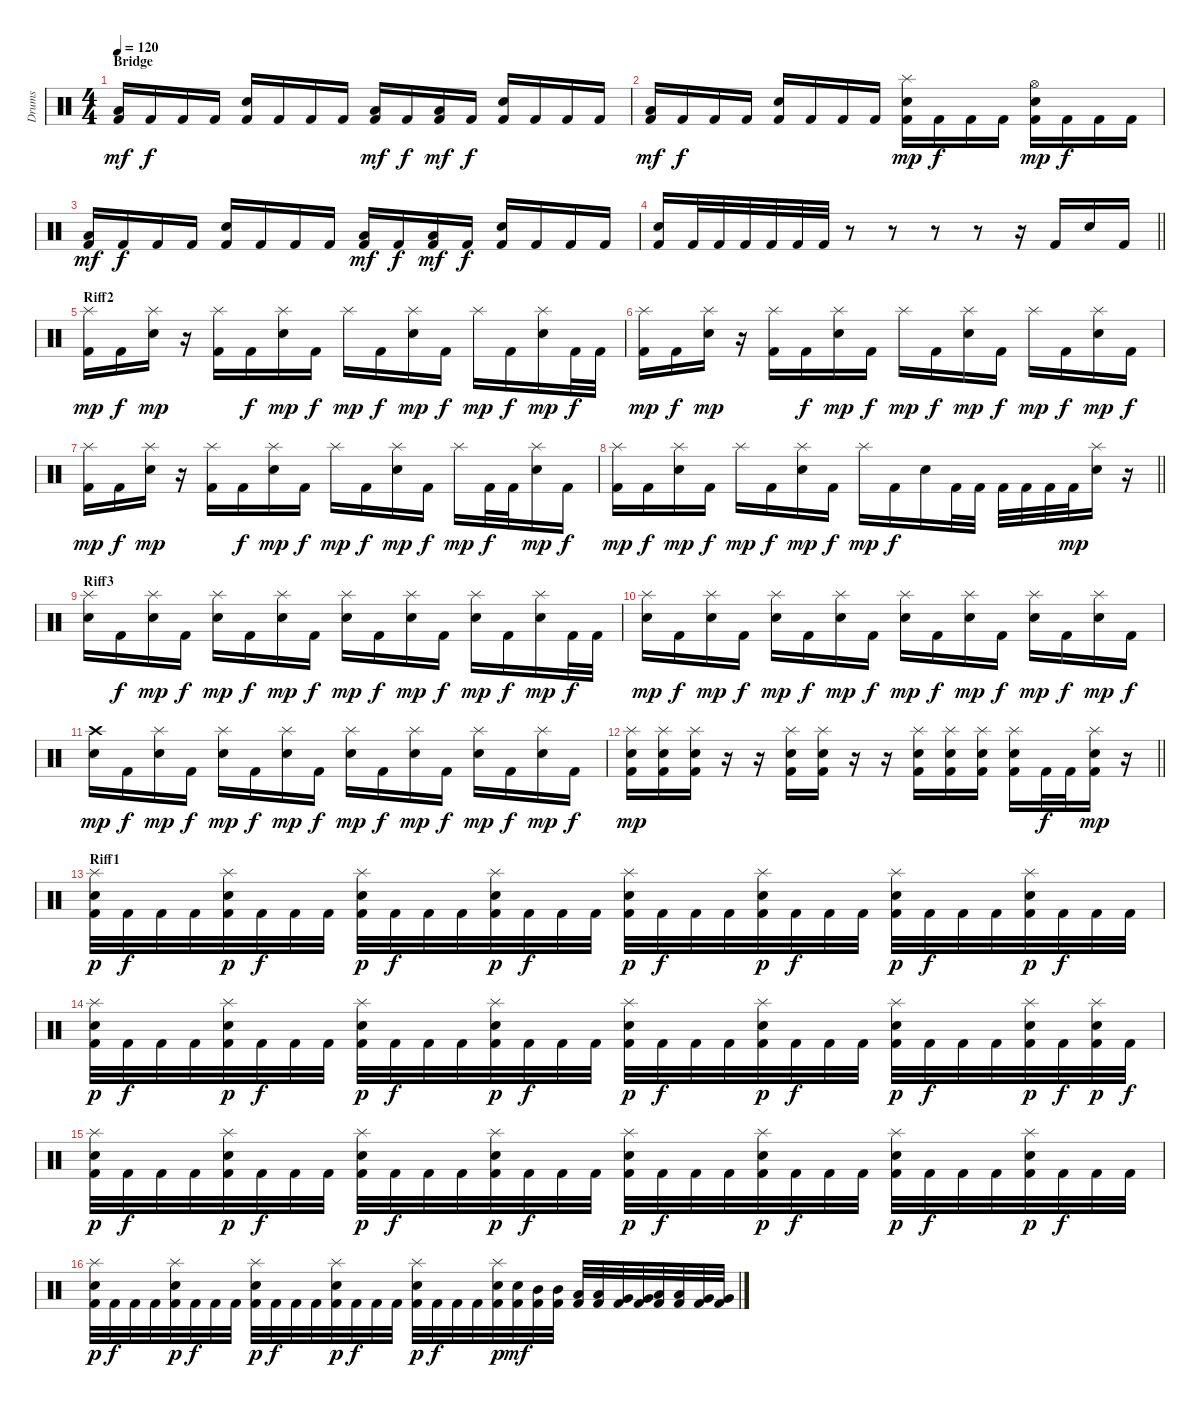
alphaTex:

\track ("Drums" "Drums") {instrument percussion}
\staff {score}
\articulation defaults
\ts (4 4)
\section ("" "Bridge")
\tempo 120
\clef neutral
\ks c
("Kick (hit) 2" "Low Tom (hit)").16{dy mf} "Kick (hit) 2".16{dy f} "Kick (hit) 2".16 "Kick (hit) 2".16 ("Kick (hit) 2" "Snare (hit) 2").16 "Kick (hit) 2".16 "Kick (hit) 2".16 "Kick (hit) 2".16 ("Kick (hit) 2" "Low Tom (hit)").16{dy mf} "Kick (hit) 2".16{dy f} ("Kick (hit) 2" "Low Tom (hit)").16{dy mf} "Kick (hit) 2".16{dy f} ("Kick (hit) 2" "Snare (hit) 2").16 "Kick (hit) 2".16 "Kick (hit) 2".16 "Kick (hit) 2".16 |
("Kick (hit) 2" "Low Tom (hit)").16{dy mf} "Kick (hit) 2".16{dy f} "Kick (hit) 2".16 "Kick (hit) 2".16 ("Kick (hit) 2" "Snare (hit) 2").16 "Kick (hit) 2".16 "Kick (hit) 2".16 "Kick (hit) 2".16 ("Kick (hit) 2" "Splash (hit)" "Snare (hit) 2").16{dy mp} "Kick (hit) 2".16{dy f} "Kick (hit) 2".16 "Kick (hit) 2".16 ("Kick (hit) 2" "Hi-Hat (open)" "Snare (hit) 2").16{dy mp} "Kick (hit) 2".16{dy f} "Kick (hit) 2".16 "Kick (hit) 2".16 |
("Kick (hit) 2" "Low Tom (hit)").16{dy mf} "Kick (hit) 2".16{dy f} "Kick (hit) 2".16 "Kick (hit) 2".16 ("Kick (hit) 2" "Snare (hit) 2").16 "Kick (hit) 2".16 "Kick (hit) 2".16 "Kick (hit) 2".16 ("Kick (hit) 2" "Low Tom (hit)").16{dy mf} "Kick (hit) 2".16{dy f} ("Kick (hit) 2" "Low Tom (hit)").16{dy mf} "Kick (hit) 2".16{dy f} ("Kick (hit) 2" "Snare (hit) 2").16 "Kick (hit) 2".16 "Kick (hit) 2".16 "Kick (hit) 2".16 |
\barLineRight lightlight
("Kick (hit) 2" "Snare (hit) 2").16 "Kick (hit) 2".32 "Kick (hit) 2".32 "Kick (hit) 2".32 "Kick (hit) 2".32 "Kick (hit) 2".32 "Kick (hit) 2".32 r.8 r.8 r.8 r.8 r.16 "Kick (hit) 2".16 "Snare (hit) 2".16 "Kick (hit) 2".16 |
\section ("" "Riff2")
("Kick (hit) 2" "Splash (hit)").16{dy mp} "Kick (hit) 2".16{dy f} ("Splash (hit)" "Snare (hit) 2").16{dy mp} r.16 ("Kick (hit) 2" "Splash (hit)").16 "Kick (hit) 2".16{dy f} ("Splash (hit)" "Snare (hit) 2").16{dy mp} "Kick (hit) 2".16{dy f} "Splash (hit)".16{dy mp} "Kick (hit) 2".16{dy f} ("Splash (hit)" "Snare (hit) 2").16{dy mp} "Kick (hit) 2".16{dy f} "Splash (hit)".16{dy mp} "Kick (hit) 2".16{dy f} ("Splash (hit)" "Snare (hit) 2").16{dy mp} "Kick (hit) 2".32{dy f} "Kick (hit) 2".32 |
("Kick (hit) 2" "Splash (hit)").16{dy mp} "Kick (hit) 2".16{dy f} ("Splash (hit)" "Snare (hit) 2").16{dy mp} r.16 ("Kick (hit) 2" "Splash (hit)").16 "Kick (hit) 2".16{dy f} ("Splash (hit)" "Snare (hit) 2").16{dy mp} "Kick (hit) 2".16{dy f} "Splash (hit)".16{dy mp} "Kick (hit) 2".16{dy f} ("Splash (hit)" "Snare (hit) 2").16{dy mp} "Kick (hit) 2".16{dy f} "Splash (hit)".16{dy mp} "Kick (hit) 2".16{dy f} ("Splash (hit)" "Snare (hit) 2").16{dy mp} "Kick (hit) 2".16{dy f} |
("Kick (hit) 2" "Splash (hit)").16{dy mp} "Kick (hit) 2".16{dy f} ("Splash (hit)" "Snare (hit) 2").16{dy mp} r.16 ("Kick (hit) 2" "Splash (hit)").16 "Kick (hit) 2".16{dy f} ("Splash (hit)" "Snare (hit) 2").16{dy mp} "Kick (hit) 2".16{dy f} "Splash (hit)".16{dy mp} "Kick (hit) 2".16{dy f} ("Splash (hit)" "Snare (hit) 2").16{dy mp} "Kick (hit) 2".16{dy f} "Splash (hit)".16{dy mp} "Kick (hit) 2".32{dy f} "Kick (hit) 2".32 ("Splash (hit)" "Snare (hit) 2").16{dy mp} "Kick (hit) 2".16{dy f} |
\barLineRight lightlight
("Kick (hit) 2" "Splash (hit)").16{dy mp} "Kick (hit) 2".16{dy f} ("Splash (hit)" "Snare (hit) 2").16{dy mp} "Kick (hit) 2".16{dy f} "Splash (hit)".16{dy mp} "Kick (hit) 2".16{dy f} ("Splash (hit)" "Snare (hit) 2").16{dy mp} "Kick (hit) 2".16{dy f} "Splash (hit)".16{dy mp} "Kick (hit) 2".16{dy f} "Snare (hit) 2".16 "Kick (hit) 2".32 "Kick (hit) 2".32 "Kick (hit) 2".32 "Kick (hit) 2".32 "Kick (hit) 2".32 "Kick (hit) 2".32{dy mp} ("Splash (hit)" "Snare (hit) 2").16 r.16 |
\section ("" "Riff3")
("Splash (hit)" "Snare (hit) 2").16 "Kick (hit) 2".16{dy f} ("Splash (hit)" "Snare (hit) 2").16{dy mp} "Kick (hit) 2".16{dy f} ("Splash (hit)" "Snare (hit) 2").16{dy mp} "Kick (hit) 2".16{dy f} ("Splash (hit)" "Snare (hit) 2").16{dy mp} "Kick (hit) 2".16{dy f} ("Splash (hit)" "Snare (hit) 2").16{dy mp} "Kick (hit) 2".16{dy f} ("Splash (hit)" "Snare (hit) 2").16{dy mp} "Kick (hit) 2".16{dy f} ("Splash (hit)" "Snare (hit) 2").16{dy mp} "Kick (hit) 2".16{dy f} ("Splash (hit)" "Snare (hit) 2").16{dy mp} "Kick (hit) 2".32{dy f} "Kick (hit) 2".32 |
("Splash (hit)" "Snare (hit) 2").16{dy mp} "Kick (hit) 2".16{dy f} ("Splash (hit)" "Snare (hit) 2").16{dy mp} "Kick (hit) 2".16{dy f} ("Splash (hit)" "Snare (hit) 2").16{dy mp} "Kick (hit) 2".16{dy f} ("Splash (hit)" "Snare (hit) 2").16{dy mp} "Kick (hit) 2".16{dy f} ("Splash (hit)" "Snare (hit) 2").16{dy mp} "Kick (hit) 2".16{dy f} ("Splash (hit)" "Snare (hit) 2").16{dy mp} "Kick (hit) 2".16{dy f} ("Splash (hit)" "Snare (hit) 2").16{dy mp} "Kick (hit) 2".16{dy f} ("Splash (hit)" "Snare (hit) 2").16{dy mp} "Kick (hit) 2".16{dy f} |
("Crash high (hit)" "Snare (hit) 2").16{dy mp} "Kick (hit) 2".16{dy f} ("Splash (hit)" "Snare (hit) 2").16{dy mp} "Kick (hit) 2".16{dy f} ("Splash (hit)" "Snare (hit) 2").16{dy mp} "Kick (hit) 2".16{dy f} ("Splash (hit)" "Snare (hit) 2").16{dy mp} "Kick (hit) 2".16{dy f} ("Splash (hit)" "Snare (hit) 2").16{dy mp} "Kick (hit) 2".16{dy f} ("Splash (hit)" "Snare (hit) 2").16{dy mp} "Kick (hit) 2".16{dy f} ("Splash (hit)" "Snare (hit) 2").16{dy mp} "Kick (hit) 2".16{dy f} ("Splash (hit)" "Snare (hit) 2").16{dy mp} "Kick (hit) 2".16{dy f} |
\barLineRight lightlight
("Kick (hit) 2" "Splash (hit)" "Snare (hit) 2").16{dy mp} ("Kick (hit) 2" "Splash (hit)" "Snare (hit) 2").16 ("Kick (hit) 2" "Splash (hit)" "Snare (hit) 2").16 r.16 r.16 ("Kick (hit) 2" "Splash (hit)" "Snare (hit) 2").16 ("Kick (hit) 2" "Splash (hit)" "Snare (hit) 2").16 r.16 r.16 ("Kick (hit) 2" "Splash (hit)" "Snare (hit) 2").16 ("Kick (hit) 2" "Splash (hit)" "Snare (hit) 2").16 ("Kick (hit) 2" "Splash (hit)" "Snare (hit) 2").16 ("Kick (hit) 2" "Splash (hit)" "Snare (hit) 2").16 "Kick (hit) 2".32{dy f} "Kick (hit) 2".32 ("Kick (hit) 2" "Splash (hit)" "Snare (hit) 2").16{dy mp} r.16 |
\section ("" "Riff1")
("Kick (hit) 2" "Splash (hit)" "Snare (hit) 2").32{dy p} "Kick (hit) 2".32{dy f} "Kick (hit) 2".32 "Kick (hit) 2".32 ("Kick (hit) 2" "Splash (hit)" "Snare (hit) 2").32{dy p} "Kick (hit) 2".32{dy f} "Kick (hit) 2".32 "Kick (hit) 2".32 ("Kick (hit) 2" "Splash (hit)" "Snare (hit) 2").32{dy p} "Kick (hit) 2".32{dy f} "Kick (hit) 2".32 "Kick (hit) 2".32 ("Kick (hit) 2" "Splash (hit)" "Snare (hit) 2").32{dy p} "Kick (hit) 2".32{dy f} "Kick (hit) 2".32 "Kick (hit) 2".32 ("Kick (hit) 2" "Splash (hit)" "Snare (hit) 2").32{dy p} "Kick (hit) 2".32{dy f} "Kick (hit) 2".32 "Kick (hit) 2".32 ("Kick (hit) 2" "Splash (hit)" "Snare (hit) 2").32{dy p} "Kick (hit) 2".32{dy f} "Kick (hit) 2".32 "Kick (hit) 2".32 ("Kick (hit) 2" "Splash (hit)" "Snare (hit) 2").32{dy p} "Kick (hit) 2".32{dy f} "Kick (hit) 2".32 "Kick (hit) 2".32 ("Kick (hit) 2" "Splash (hit)" "Snare (hit) 2").32{dy p} "Kick (hit) 2".32{dy f} "Kick (hit) 2".32 "Kick (hit) 2".32 |
("Kick (hit) 2" "Splash (hit)" "Snare (hit) 2").32{dy p} "Kick (hit) 2".32{dy f} "Kick (hit) 2".32 "Kick (hit) 2".32 ("Kick (hit) 2" "Splash (hit)" "Snare (hit) 2").32{dy p} "Kick (hit) 2".32{dy f} "Kick (hit) 2".32 "Kick (hit) 2".32 ("Kick (hit) 2" "Splash (hit)" "Snare (hit) 2").32{dy p} "Kick (hit) 2".32{dy f} "Kick (hit) 2".32 "Kick (hit) 2".32 ("Kick (hit) 2" "Splash (hit)" "Snare (hit) 2").32{dy p} "Kick (hit) 2".32{dy f} "Kick (hit) 2".32 "Kick (hit) 2".32 ("Kick (hit) 2" "Splash (hit)" "Snare (hit) 2").32{dy p} "Kick (hit) 2".32{dy f} "Kick (hit) 2".32 "Kick (hit) 2".32 ("Kick (hit) 2" "Splash (hit)" "Snare (hit) 2").32{dy p} "Kick (hit) 2".32{dy f} "Kick (hit) 2".32 "Kick (hit) 2".32 ("Kick (hit) 2" "Splash (hit)" "Snare (hit) 2").32{dy p} "Kick (hit) 2".32{dy f} "Kick (hit) 2".32 "Kick (hit) 2".32 ("Kick (hit) 2" "Splash (hit)" "Snare (hit) 2").32{dy p} "Kick (hit) 2".32{dy f} ("Kick (hit) 2" "Splash (hit)" "Snare (hit) 2").32{dy p} "Kick (hit) 2".32{dy f} |
("Kick (hit) 2" "Splash (hit)" "Snare (hit) 2").32{dy p} "Kick (hit) 2".32{dy f} "Kick (hit) 2".32 "Kick (hit) 2".32 ("Kick (hit) 2" "Splash (hit)" "Snare (hit) 2").32{dy p} "Kick (hit) 2".32{dy f} "Kick (hit) 2".32 "Kick (hit) 2".32 ("Kick (hit) 2" "Splash (hit)" "Snare (hit) 2").32{dy p} "Kick (hit) 2".32{dy f} "Kick (hit) 2".32 "Kick (hit) 2".32 ("Kick (hit) 2" "Splash (hit)" "Snare (hit) 2").32{dy p} "Kick (hit) 2".32{dy f} "Kick (hit) 2".32 "Kick (hit) 2".32 ("Kick (hit) 2" "Splash (hit)" "Snare (hit) 2").32{dy p} "Kick (hit) 2".32{dy f} "Kick (hit) 2".32 "Kick (hit) 2".32 ("Kick (hit) 2" "Splash (hit)" "Snare (hit) 2").32{dy p} "Kick (hit) 2".32{dy f} "Kick (hit) 2".32 "Kick (hit) 2".32 ("Kick (hit) 2" "Splash (hit)" "Snare (hit) 2").32{dy p} "Kick (hit) 2".32{dy f} "Kick (hit) 2".32 "Kick (hit) 2".32 ("Kick (hit) 2" "Splash (hit)" "Snare (hit) 2").32{dy p} "Kick (hit) 2".32{dy f} "Kick (hit) 2".32 "Kick (hit) 2".32 |
("Kick (hit) 2" "Splash (hit)" "Snare (hit) 2").32{dy p} "Kick (hit) 2".32{dy f} "Kick (hit) 2".32 "Kick (hit) 2".32 ("Kick (hit) 2" "Splash (hit)" "Snare (hit) 2").32{dy p} "Kick (hit) 2".32{dy f} "Kick (hit) 2".32 "Kick (hit) 2".32 ("Kick (hit) 2" "Splash (hit)" "Snare (hit) 2").32{dy p} "Kick (hit) 2".32{dy f} "Kick (hit) 2".32 "Kick (hit) 2".32 ("Kick (hit) 2" "Splash (hit)" "Snare (hit) 2").32{dy p} "Kick (hit) 2".32{dy f} "Kick (hit) 2".32 "Kick (hit) 2".32 ("Kick (hit) 2" "Splash (hit)" "Snare (hit) 2").32{dy p} "Kick (hit) 2".32{dy f} "Kick (hit) 2".32 "Kick (hit) 2".32 ("Kick (hit) 2" "Splash (hit)" "Snare (hit) 2").32{dy p} ("Kick (hit) 2" "Snare (hit) 2").32{dy mf} ("Kick (hit) 2" "Mid Tom (hit)").32 ("Kick (hit) 2" "Mid Tom (hit)").32 ("Kick (hit) 2" "Low Tom (hit)").32 ("Kick (hit) 2" "Low Tom (hit)").32 ("Kick (hit) 2" "Very Low Tom (hit)").32 ("Kick (hit) 2" "Very Low Tom (hit)").32 ("Kick (hit) 2" "Low Tom (hit)").32 ("Kick (hit) 2" "Low Tom (hit)").32 ("Kick (hit) 2" "Very Low Tom (hit)").32 ("Kick (hit) 2" "Very Low Tom (hit)").32
